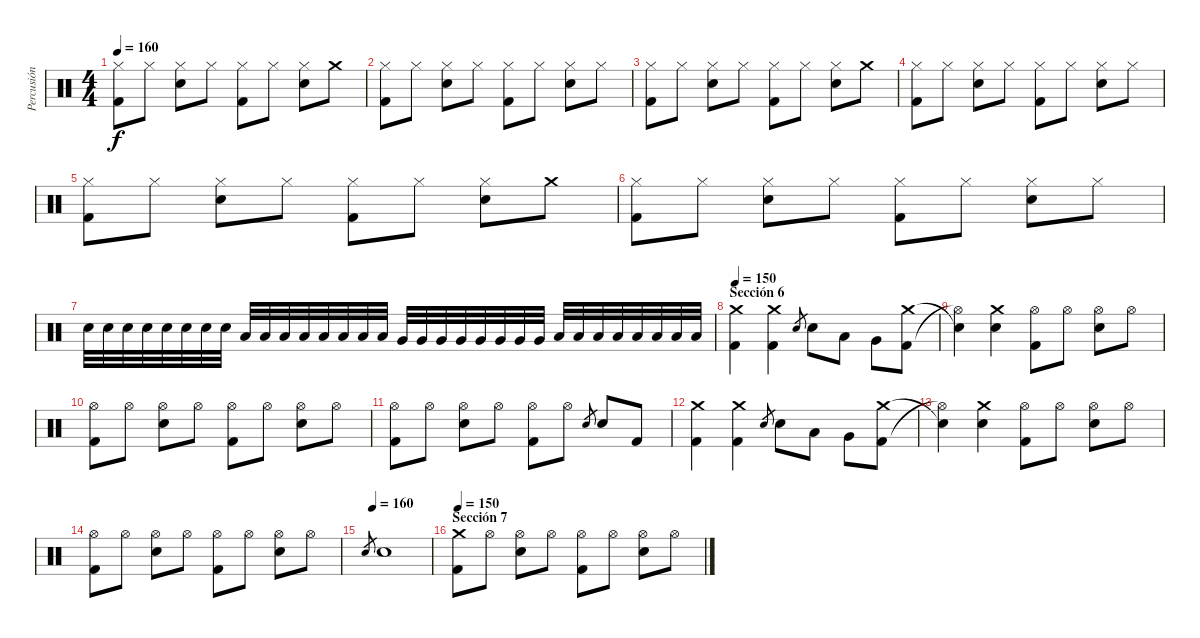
\track ("Percusión" "Percusión") {instrument percussion}
\staff {score}
\articulation defaults
\ts (4 4)
\tempo 160
\clef neutral
\ks c
("Hi-Hat (closed)" "Kick (hit) 2").8{dy f} "Hi-Hat (closed)".8 ("Hi-Hat (closed)" "Snare (hit) 2").8 "Hi-Hat (closed)".8 ("Hi-Hat (closed)" "Kick (hit) 2").8 "Hi-Hat (closed)".8 ("Hi-Hat (closed)" "Snare (hit) 2").8 "Crash medium (hit)".8 |
("Hi-Hat (closed)" "Kick (hit) 2").8 "Hi-Hat (closed)".8 ("Hi-Hat (closed)" "Snare (hit) 2").8 "Hi-Hat (closed)".8 ("Hi-Hat (closed)" "Kick (hit) 2").8 "Hi-Hat (closed)".8 ("Hi-Hat (closed)" "Snare (hit) 2").8 "Hi-Hat (closed)".8 |
("Hi-Hat (closed)" "Kick (hit) 2").8 "Hi-Hat (closed)".8 ("Hi-Hat (closed)" "Snare (hit) 2").8 "Hi-Hat (closed)".8 ("Hi-Hat (closed)" "Kick (hit) 2").8 "Hi-Hat (closed)".8 ("Hi-Hat (closed)" "Snare (hit) 2").8 "Crash medium (hit)".8 |
("Hi-Hat (closed)" "Kick (hit) 2").8 "Hi-Hat (closed)".8 ("Hi-Hat (closed)" "Snare (hit) 2").8 "Hi-Hat (closed)".8 ("Hi-Hat (closed)" "Kick (hit) 2").8 "Hi-Hat (closed)".8 ("Hi-Hat (closed)" "Snare (hit) 2").8 "Hi-Hat (closed)".8 |
("Hi-Hat (closed)" "Kick (hit) 2").8 "Hi-Hat (closed)".8 ("Hi-Hat (closed)" "Snare (hit) 2").8 "Hi-Hat (closed)".8 ("Hi-Hat (closed)" "Kick (hit) 2").8 "Hi-Hat (closed)".8 ("Hi-Hat (closed)" "Snare (hit) 2").8 "Crash medium (hit)".8 |
("Hi-Hat (closed)" "Kick (hit) 2").8 "Hi-Hat (closed)".8 ("Hi-Hat (closed)" "Snare (hit) 2").8 "Hi-Hat (closed)".8 ("Hi-Hat (closed)" "Kick (hit) 2").8 "Hi-Hat (closed)".8 ("Hi-Hat (closed)" "Snare (hit) 2").8 "Hi-Hat (closed)".8 |
"Snare (hit) 2".32 "Snare (hit) 2".32 "Snare (hit) 2".32 "Snare (hit) 2".32 "Snare (hit) 2".32 "Snare (hit) 2".32 "Snare (hit) 2".32 "Snare (hit) 2".32 "Low Tom (hit)".32 "Low Tom (hit)".32 "Low Tom (hit)".32 "Low Tom (hit)".32 "Low Tom (hit)".32 "Low Tom (hit)".32 "Low Tom (hit)".32 "Low Tom (hit)".32 "Very Low Tom (hit)".32 "Very Low Tom (hit)".32 "Very Low Tom (hit)".32 "Very Low Tom (hit)".32 "Very Low Tom (hit)".32 "Very Low Tom (hit)".32 "Very Low Tom (hit)".32 "Very Low Tom (hit)".32 "Low Floor Tom (hit)".32 "Low Floor Tom (hit)".32 "Low Floor Tom (hit)".32 "Low Floor Tom (hit)".32 "Low Floor Tom (hit)".32 "Low Floor Tom (hit)".32 "Low Floor Tom (hit)".32 "Low Floor Tom (hit)".32 |
\section ("" "Sección 6")
\tempo 150
("Crash medium (hit)" "Kick (hit) 2").4 ("Crash medium (hit)" "Kick (hit) 2").4 "Snare (hit) 2".8{gr} "Snare (hit) 2".8 "Low Tom (hit)".8 "Very Low Tom (hit)".8 ("Kick (hit) 2" "Crash medium (hit)").8 |
("Hi-Hat (open)"{t} "Snare (hit)"{t}).4 ("Crash medium (hit)" "Snare (hit) 2").4 ("Hi-Hat (open)" "Kick (hit) 2").8 "Hi-Hat (open)".8 ("Hi-Hat (open)" "Snare (hit) 2").8 "Hi-Hat (open)".8 |
("Hi-Hat (open)" "Kick (hit) 2").8 "Hi-Hat (open)".8 ("Hi-Hat (open)" "Snare (hit) 2").8 "Hi-Hat (open)".8 ("Hi-Hat (open)" "Kick (hit) 2").8 "Hi-Hat (open)".8 ("Hi-Hat (open)" "Snare (hit) 2").8 "Hi-Hat (open)".8 |
("Hi-Hat (open)" "Kick (hit) 2").8 "Hi-Hat (open)".8 ("Hi-Hat (open)" "Snare (hit) 2").8 "Hi-Hat (open)".8 ("Hi-Hat (open)" "Kick (hit) 2").8 "Hi-Hat (open)".8 "Snare (hit) 2".8{gr} "Snare (hit) 2".8 "Kick (hit) 2".8 |
("Crash medium (hit)" "Kick (hit) 2").4 ("Crash medium (hit)" "Kick (hit) 2").4 "Snare (hit) 2".8{gr} "Snare (hit) 2".8 "Low Tom (hit)".8 "Very Low Tom (hit)".8 ("Kick (hit) 2" "Crash medium (hit)").8 |
("Hi-Hat (open)"{t} "Snare (hit)"{t}).4 ("Crash medium (hit)" "Snare (hit) 2").4 ("Hi-Hat (open)" "Kick (hit) 2").8 "Hi-Hat (open)".8 ("Hi-Hat (open)" "Snare (hit) 2").8 "Hi-Hat (open)".8 |
("Hi-Hat (open)" "Kick (hit) 2").8 "Hi-Hat (open)".8 ("Hi-Hat (open)" "Snare (hit) 2").8 "Hi-Hat (open)".8 ("Hi-Hat (open)" "Kick (hit) 2").8 "Hi-Hat (open)".8 ("Hi-Hat (open)" "Snare (hit) 2").8 "Hi-Hat (open)".8 |
\tempo (160 0.125)
"Snare (hit) 2".8{gr} "Snare (hit) 2".1 |
\section ("" "Sección 7")
\tempo 150
("Crash medium (hit)" "Kick (hit) 2").8 "Hi-Hat (open)".8 ("Hi-Hat (open)" "Snare (hit) 2").8 "Hi-Hat (open)".8 ("Hi-Hat (open)" "Kick (hit) 2").8 "Hi-Hat (open)".8 ("Hi-Hat (open)" "Snare (hit) 2").8 "Hi-Hat (open)".8
